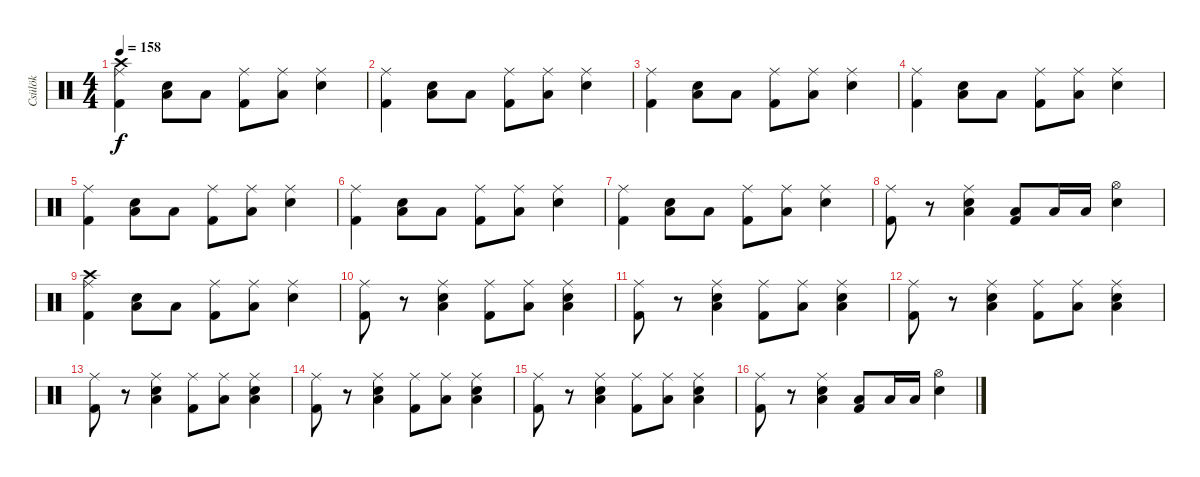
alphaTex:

\track ("Csülök" "Csülök") {instrument percussion}
\staff {score}
\articulation defaults
\ts (4 4)
\tempo 158
\clef neutral
\ks c
("Crash high (hit)" "Kick (hit) 2" "Ride (middle)").4{dy f} ("Snare (hit) 2" "Low Tom (hit)").8 "Low Tom (hit)".8 ("Kick (hit) 2" "Ride (middle)").8 ("Low Tom (hit)" "Ride (middle)").8 ("Snare (hit) 2" "Ride (middle)").4 |
("Kick (hit) 2" "Ride (middle)").4 ("Snare (hit) 2" "Low Tom (hit)").8 "Low Tom (hit)".8 ("Kick (hit) 2" "Ride (middle)").8 ("Low Tom (hit)" "Ride (middle)").8 ("Snare (hit) 2" "Ride (middle)").4 |
("Kick (hit) 2" "Ride (middle)").4 ("Snare (hit) 2" "Low Tom (hit)").8 "Low Tom (hit)".8 ("Kick (hit) 2" "Ride (middle)").8 ("Low Tom (hit)" "Ride (middle)").8 ("Snare (hit) 2" "Ride (middle)").4 |
("Kick (hit) 2" "Ride (middle)").4 ("Snare (hit) 2" "Low Tom (hit)").8 "Low Tom (hit)".8 ("Kick (hit) 2" "Ride (middle)").8 ("Low Tom (hit)" "Ride (middle)").8 ("Snare (hit) 2" "Ride (middle)").4 |
("Kick (hit) 2" "Ride (middle)").4 ("Snare (hit) 2" "Low Tom (hit)").8 "Low Tom (hit)".8 ("Kick (hit) 2" "Ride (middle)").8 ("Low Tom (hit)" "Ride (middle)").8 ("Snare (hit) 2" "Ride (middle)").4 |
("Kick (hit) 2" "Ride (middle)").4 ("Snare (hit) 2" "Low Tom (hit)").8 "Low Tom (hit)".8 ("Kick (hit) 2" "Ride (middle)").8 ("Low Tom (hit)" "Ride (middle)").8 ("Snare (hit) 2" "Ride (middle)").4 |
("Kick (hit) 2" "Ride (middle)").4 ("Snare (hit) 2" "Low Tom (hit)").8 "Low Tom (hit)".8 ("Kick (hit) 2" "Ride (middle)").8 ("Low Tom (hit)" "Ride (middle)").8 ("Snare (hit) 2" "Ride (middle)").4 |
("Kick (hit) 2" "Ride (middle)").8 r.8 ("Snare (hit) 2" "Low Tom (hit)" "Ride (middle)").4 ("Kick (hit) 2" "Low Tom (hit)").8 "Low Tom (hit)".16 "Low Tom (hit)".16 ("Hi-Hat (open)" "Snare (hit) 2").4 |
("Crash high (hit)" "Kick (hit) 2" "Ride (middle)").4 ("Snare (hit) 2" "Low Tom (hit)").8 "Low Tom (hit)".8 ("Kick (hit) 2" "Ride (middle)").8 ("Low Tom (hit)" "Ride (middle)").8 ("Snare (hit) 2" "Ride (middle)").4 |
("Kick (hit) 2" "Ride (middle)").8 r.8 ("Snare (hit) 2" "Low Tom (hit)" "Ride (middle)").4 ("Kick (hit) 2" "Ride (middle)").8 ("Low Tom (hit)" "Ride (middle)").8 ("Snare (hit) 2" "Low Tom (hit)" "Ride (middle)").4 |
("Kick (hit) 2" "Ride (middle)").8 r.8 ("Snare (hit) 2" "Low Tom (hit)" "Ride (middle)").4 ("Kick (hit) 2" "Ride (middle)").8 ("Low Tom (hit)" "Ride (middle)").8 ("Snare (hit) 2" "Low Tom (hit)" "Ride (middle)").4 |
("Kick (hit) 2" "Ride (middle)").8 r.8 ("Snare (hit) 2" "Low Tom (hit)" "Ride (middle)").4 ("Kick (hit) 2" "Ride (middle)").8 ("Low Tom (hit)" "Ride (middle)").8 ("Snare (hit) 2" "Low Tom (hit)" "Ride (middle)").4 |
("Kick (hit) 2" "Ride (middle)").8 r.8 ("Snare (hit) 2" "Low Tom (hit)" "Ride (middle)").4 ("Kick (hit) 2" "Ride (middle)").8 ("Low Tom (hit)" "Ride (middle)").8 ("Snare (hit) 2" "Low Tom (hit)" "Ride (middle)").4 |
("Kick (hit) 2" "Ride (middle)").8 r.8 ("Snare (hit) 2" "Low Tom (hit)" "Ride (middle)").4 ("Kick (hit) 2" "Ride (middle)").8 ("Low Tom (hit)" "Ride (middle)").8 ("Snare (hit) 2" "Low Tom (hit)" "Ride (middle)").4 |
("Kick (hit) 2" "Ride (middle)").8 r.8 ("Snare (hit) 2" "Low Tom (hit)" "Ride (middle)").4 ("Kick (hit) 2" "Ride (middle)").8 ("Low Tom (hit)" "Ride (middle)").8 ("Snare (hit) 2" "Low Tom (hit)" "Ride (middle)").4 |
("Kick (hit) 2" "Ride (middle)").8 r.8 ("Snare (hit) 2" "Low Tom (hit)" "Ride (middle)").4 ("Kick (hit) 2" "Low Tom (hit)").8 "Low Tom (hit)".16 "Low Tom (hit)".16 ("Hi-Hat (open)" "Snare (hit) 2").4
